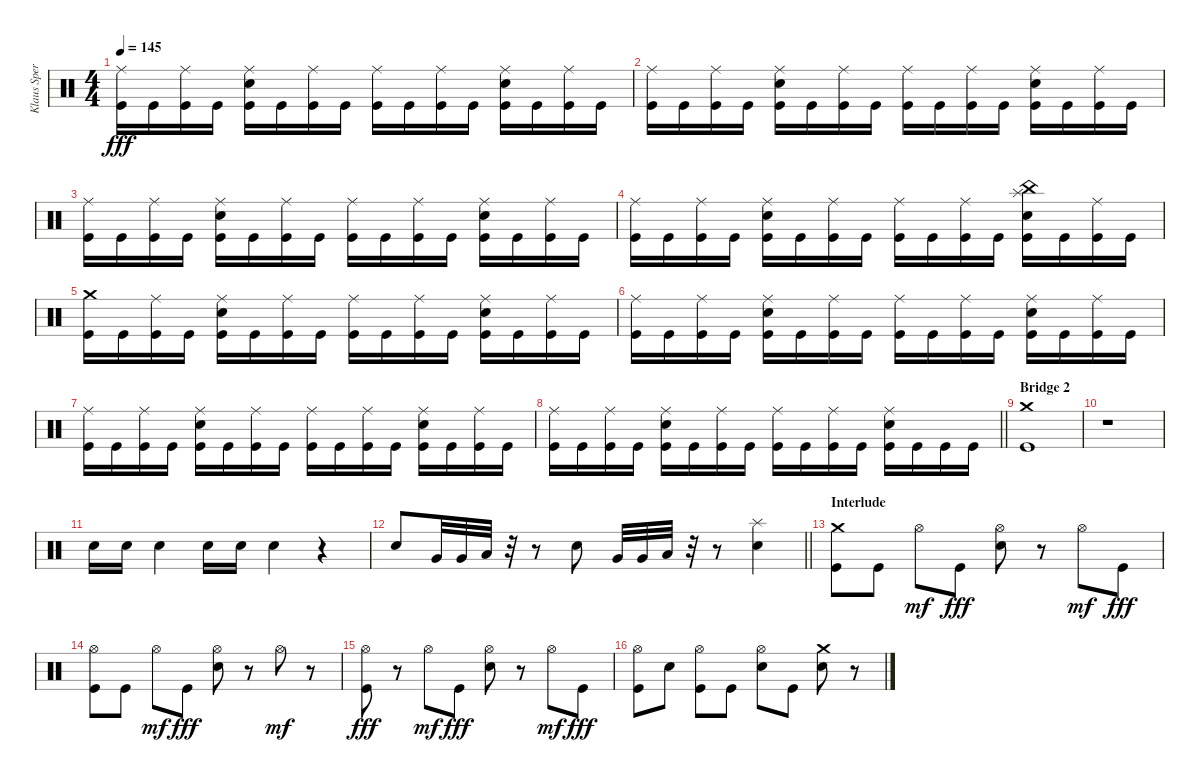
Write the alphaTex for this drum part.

\track ("Klaus Sperling" "Klaus Sper") {instrument percussion}
\staff {score}
\articulation defaults
\ts (4 4)
\tempo 145
\clef neutral
\ks c
("Ride (middle)" "Kick (hit)").16{dy fff} "Kick (hit)".16 ("Ride (middle)" "Kick (hit)").16 "Kick (hit)".16 ("Ride (middle)" "Electric Snare (hit)" "Kick (hit)").16 "Kick (hit)".16 ("Ride (middle)" "Kick (hit)").16 "Kick (hit)".16 ("Ride (middle)" "Kick (hit)").16 "Kick (hit)".16 ("Ride (middle)" "Kick (hit)").16 "Kick (hit)".16 ("Ride (middle)" "Electric Snare (hit)" "Kick (hit)").16 "Kick (hit)".16 ("Ride (middle)" "Kick (hit)").16 "Kick (hit)".16 |
("Ride (middle)" "Kick (hit)").16 "Kick (hit)".16 ("Ride (middle)" "Kick (hit)").16 "Kick (hit)".16 ("Ride (middle)" "Electric Snare (hit)" "Kick (hit)").16 "Kick (hit)".16 ("Ride (middle)" "Kick (hit)").16 "Kick (hit)".16 ("Ride (middle)" "Kick (hit)").16 "Kick (hit)".16 ("Ride (middle)" "Kick (hit)").16 "Kick (hit)".16 ("Ride (middle)" "Electric Snare (hit)" "Kick (hit)").16 "Kick (hit)".16 ("Ride (middle)" "Kick (hit)").16 "Kick (hit)".16 |
("Ride (middle)" "Kick (hit)").16 "Kick (hit)".16 ("Ride (middle)" "Kick (hit)").16 "Kick (hit)".16 ("Ride (middle)" "Electric Snare (hit)" "Kick (hit)").16 "Kick (hit)".16 ("Ride (middle)" "Kick (hit)").16 "Kick (hit)".16 ("Ride (middle)" "Kick (hit)").16 "Kick (hit)".16 ("Ride (middle)" "Kick (hit)").16 "Kick (hit)".16 ("Ride (middle)" "Electric Snare (hit)" "Kick (hit)").16 "Kick (hit)".16 ("Ride (middle)" "Kick (hit)").16 "Kick (hit)".16 |
("Ride (middle)" "Kick (hit)").16 "Kick (hit)".16 ("Ride (middle)" "Kick (hit)").16 "Kick (hit)".16 ("Ride (middle)" "Electric Snare (hit)" "Kick (hit)").16 "Kick (hit)".16 ("Ride (middle)" "Kick (hit)").16 "Kick (hit)".16 ("Ride (middle)" "Kick (hit)").16 "Kick (hit)".16 ("Ride (middle)" "Kick (hit)").16 "Kick (hit)".16 ("Splash (hit)" "China (hit)" "Electric Snare (hit)" "Kick (hit)").16 "Kick (hit)".16 ("Ride (middle)" "Kick (hit)").16 "Kick (hit)".16 |
("Crash medium (hit)" "Kick (hit)").16 "Kick (hit)".16 ("Ride (middle)" "Kick (hit)").16 "Kick (hit)".16 ("Ride (middle)" "Electric Snare (hit)" "Kick (hit)").16 "Kick (hit)".16 ("Ride (middle)" "Kick (hit)").16 "Kick (hit)".16 ("Ride (middle)" "Kick (hit)").16 "Kick (hit)".16 ("Ride (middle)" "Kick (hit)").16 "Kick (hit)".16 ("Ride (middle)" "Electric Snare (hit)" "Kick (hit)").16 "Kick (hit)".16 ("Ride (middle)" "Kick (hit)").16 "Kick (hit)".16 |
("Ride (middle)" "Kick (hit)").16 "Kick (hit)".16 ("Ride (middle)" "Kick (hit)").16 "Kick (hit)".16 ("Ride (middle)" "Electric Snare (hit)" "Kick (hit)").16 "Kick (hit)".16 ("Ride (middle)" "Kick (hit)").16 "Kick (hit)".16 ("Ride (middle)" "Kick (hit)").16 "Kick (hit)".16 ("Ride (middle)" "Kick (hit)").16 "Kick (hit)".16 ("Ride (middle)" "Electric Snare (hit)" "Kick (hit)").16 "Kick (hit)".16 ("Ride (middle)" "Kick (hit)").16 "Kick (hit)".16 |
("Ride (middle)" "Kick (hit)").16 "Kick (hit)".16 ("Ride (middle)" "Kick (hit)").16 "Kick (hit)".16 ("Ride (middle)" "Electric Snare (hit)" "Kick (hit)").16 "Kick (hit)".16 ("Ride (middle)" "Kick (hit)").16 "Kick (hit)".16 ("Ride (middle)" "Kick (hit)").16 "Kick (hit)".16 ("Ride (middle)" "Kick (hit)").16 "Kick (hit)".16 ("Ride (middle)" "Electric Snare (hit)" "Kick (hit)").16 "Kick (hit)".16 ("Ride (middle)" "Kick (hit)").16 "Kick (hit)".16 |
\barLineRight lightlight
("Ride (middle)" "Kick (hit)").16 "Kick (hit)".16 ("Ride (middle)" "Kick (hit)").16 "Kick (hit)".16 ("Ride (middle)" "Electric Snare (hit)" "Kick (hit)").16 "Kick (hit)".16 ("Ride (middle)" "Kick (hit)").16 "Kick (hit)".16 ("Ride (middle)" "Kick (hit)").16 "Kick (hit)".16 ("Ride (middle)" "Kick (hit)").16 "Kick (hit)".16 ("Ride (middle)" "Electric Snare (hit)" "Kick (hit)").16 "Kick (hit)".16 "Kick (hit)".16 "Kick (hit)".16 |
\section ("" "Bridge 2")
("Crash medium (hit)" "Kick (hit)").1 |
r.1 |
"Electric Snare (hit)".16 "Electric Snare (hit)".16 "Electric Snare (hit)".4 "Electric Snare (hit)".16 "Electric Snare (hit)".16 "Electric Snare (hit)".4 r.4 |
\barLineRight lightlight "Electric Snare (hit)".8 "Very Low Tom (hit)".32 "Very Low Tom (hit)".32 "Low Floor Tom (hit)".32
r.32 r.8 "Electric Snare (hit)".8 "Very Low Tom (hit)".32 "Very Low Tom (hit)".32 "Low Floor Tom (hit)".32 r.32 r.8 ("Splash (hit)" "Electric Snare (hit)").4 |
\section ("" "Interlude")
("Crash medium (hit)" "Kick (hit)").8 "Kick (hit)".8 "Hi-Hat (open)".8{dy mf} "Kick (hit)".8{dy fff} ("Hi-Hat (open)" "Electric Snare (hit)").8 r.8 "Hi-Hat (open)".8{dy mf} "Kick (hit)".8{dy fff} |
("Hi-Hat (open)" "Kick (hit)").8 "Kick (hit)".8 "Hi-Hat (open)".8{dy mf} "Kick (hit)".8{dy fff} ("Hi-Hat (open)" "Electric Snare (hit)").8 r.8 "Hi-Hat (open)".8{dy mf} r.8 |
("Hi-Hat (open)" "Kick (hit)").8{dy fff} r.8 "Hi-Hat (open)".8{dy mf} "Kick (hit)".8{dy fff} ("Hi-Hat (open)" "Electric Snare (hit)").8 r.8 "Hi-Hat (open)".8{dy mf} "Kick (hit)".8{dy fff} |
("Hi-Hat (open)" "Kick (hit)").8 "Electric Snare (hit)".8 ("Hi-Hat (open)" "Kick (hit)").8 "Kick (hit)".8 ("Hi-Hat (open)" "Electric Snare (hit)").8 "Kick (hit)".8 ("Crash medium (hit)" "Electric Snare (hit)").8 r.8
